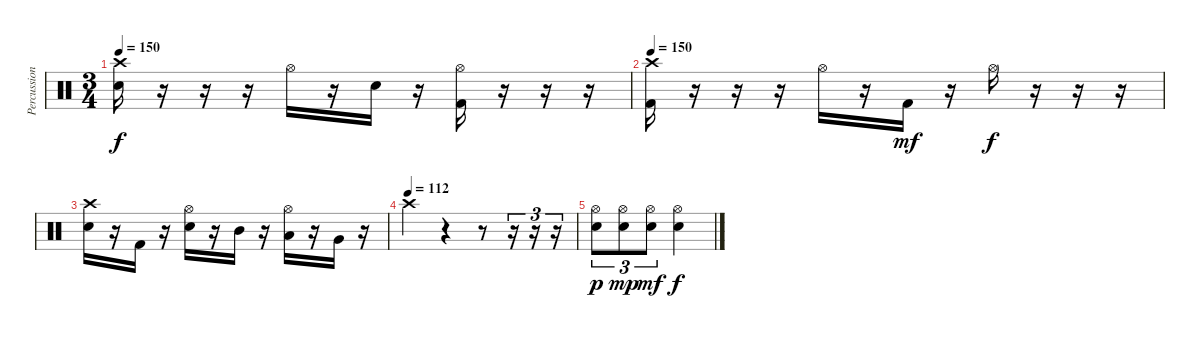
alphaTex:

\track ("Percussion" "Percussion") {instrument percussion}
\staff {score}
\articulation defaults
\ts (3 4)
\tempo 150
\clef neutral
\ks c
("Crash high (hit)" "Electric Snare (hit)").16{dy f} r.16 r.16 r.16 "Hi-Hat (open)".16 r.16 "Electric Snare (hit)".16 r.16 ("Hi-Hat (open)" "Kick (hit) 2").16 r.16 r.16 r.16 |
\tempo 150
("Crash high (hit)" "Kick (hit) 2").16 r.16 r.16 r.16 "Hi-Hat (open)".16 r.16 "Kick (hit) 2".16{dy mf} r.16 "Hi-Hat (open)".16{dy f} r.16 r.16 r.16 |
("Crash high (hit)" "Electric Snare (hit)").16 r.16 "Kick (hit) 2".16 r.16 ("Hi-Hat (open)" "Electric Snare (hit)").16 r.16 "Mid Tom (hit)".16 r.16 ("Hi-Hat (open)" "Low Tom (hit)").16 r.16 "Very Low Tom (hit)".16 r.16 |
\tempo (112)
"Crash high (hit)".4 r.4 r.8 r.16{tu (3 2)} r.16{tu (3 2)} r.16{tu (3 2)} |
("Electric Snare (hit)" "Hi-Hat (open)").8{tu (3 2) dy p} ("Electric Snare (hit)" "Hi-Hat (open)").8{tu (3 2) dy mp} ("Electric Snare (hit)" "Hi-Hat (open)").8{tu (3 2) dy mf} ("Electric Snare (hit)" "Hi-Hat (open)").4{dy f}
